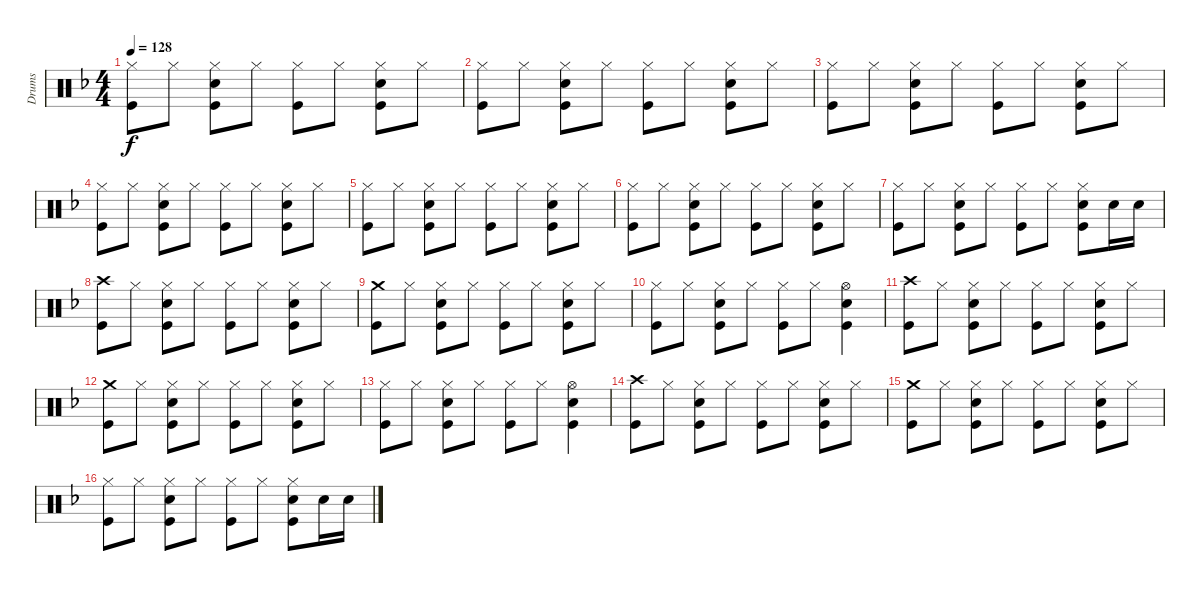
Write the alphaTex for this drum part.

\track ("Drums" "Drums") {instrument percussion}
\staff {score}
\articulation defaults
\ts (4 4)
\tempo 128
\clef neutral
\ks f
("Hi-Hat (closed)" "Kick (hit)").8{dy f} "Hi-Hat (closed)".8 ("Hi-Hat (closed)" "Snare (hit) 2" "Kick (hit)").8 "Hi-Hat (closed)".8 ("Hi-Hat (closed)" "Kick (hit)").8 "Hi-Hat (closed)".8 ("Hi-Hat (closed)" "Snare (hit) 2" "Kick (hit)").8 "Hi-Hat (closed)".8 |
("Hi-Hat (closed)" "Kick (hit)").8 "Hi-Hat (closed)".8 ("Hi-Hat (closed)" "Snare (hit) 2" "Kick (hit)").8 "Hi-Hat (closed)".8 ("Hi-Hat (closed)" "Kick (hit)").8 "Hi-Hat (closed)".8 ("Hi-Hat (closed)" "Snare (hit) 2" "Kick (hit)").8 "Hi-Hat (closed)".8 |
("Hi-Hat (closed)" "Kick (hit)").8 "Hi-Hat (closed)".8 ("Hi-Hat (closed)" "Snare (hit) 2" "Kick (hit)").8 "Hi-Hat (closed)".8 ("Hi-Hat (closed)" "Kick (hit)").8 "Hi-Hat (closed)".8 ("Hi-Hat (closed)" "Snare (hit) 2" "Kick (hit)").8 "Hi-Hat (closed)".8 |
("Hi-Hat (closed)" "Kick (hit)").8 "Hi-Hat (closed)".8 ("Hi-Hat (closed)" "Snare (hit) 2" "Kick (hit)").8 "Hi-Hat (closed)".8 ("Hi-Hat (closed)" "Kick (hit)").8 "Hi-Hat (closed)".8 ("Hi-Hat (closed)" "Snare (hit) 2" "Kick (hit)").8 "Hi-Hat (closed)".8 |
("Hi-Hat (closed)" "Kick (hit)").8 "Hi-Hat (closed)".8 ("Hi-Hat (closed)" "Snare (hit) 2" "Kick (hit)").8 "Hi-Hat (closed)".8 ("Hi-Hat (closed)" "Kick (hit)").8 "Hi-Hat (closed)".8 ("Hi-Hat (closed)" "Snare (hit) 2" "Kick (hit)").8 "Hi-Hat (closed)".8 |
("Hi-Hat (closed)" "Kick (hit)").8 "Hi-Hat (closed)".8 ("Hi-Hat (closed)" "Snare (hit) 2" "Kick (hit)").8 "Hi-Hat (closed)".8 ("Hi-Hat (closed)" "Kick (hit)").8 "Hi-Hat (closed)".8 ("Hi-Hat (closed)" "Snare (hit) 2" "Kick (hit)").8 "Hi-Hat (closed)".8 |
("Hi-Hat (closed)" "Kick (hit)").8 "Hi-Hat (closed)".8 ("Hi-Hat (closed)" "Snare (hit) 2" "Kick (hit)").8 "Hi-Hat (closed)".8 ("Hi-Hat (closed)" "Kick (hit)").8 "Hi-Hat (closed)".8 ("Hi-Hat (closed)" "Snare (hit) 2" "Kick (hit)").8 "Snare (hit) 2".16 "Snare (hit) 2".16 |
("Crash high (hit)" "Kick (hit)").8 "Hi-Hat (closed)".8 ("Hi-Hat (closed)" "Snare (hit) 2" "Kick (hit)").8 "Hi-Hat (closed)".8 ("Hi-Hat (closed)" "Kick (hit)").8 "Hi-Hat (closed)".8 ("Hi-Hat (closed)" "Snare (hit) 2" "Kick (hit)").8 "Hi-Hat (closed)".8 |
("Crash medium (hit)" "Kick (hit)").8 "Hi-Hat (closed)".8 ("Hi-Hat (closed)" "Snare (hit) 2" "Kick (hit)").8 "Hi-Hat (closed)".8 ("Hi-Hat (closed)" "Kick (hit)").8 "Hi-Hat (closed)".8 ("Hi-Hat (closed)" "Snare (hit) 2" "Kick (hit)").8 "Hi-Hat (closed)".8 |
("Hi-Hat (closed)" "Kick (hit)").8 "Hi-Hat (closed)".8 ("Hi-Hat (closed)" "Snare (hit) 2" "Kick (hit)").8 "Hi-Hat (closed)".8 ("Hi-Hat (closed)" "Kick (hit)").8 "Hi-Hat (closed)".8 ("Hi-Hat (open)" "Snare (hit) 2" "Kick (hit)").4 |
("Crash high (hit)" "Kick (hit)").8 "Hi-Hat (closed)".8 ("Hi-Hat (closed)" "Snare (hit) 2" "Kick (hit)").8 "Hi-Hat (closed)".8 ("Hi-Hat (closed)" "Kick (hit)").8 "Hi-Hat (closed)".8 ("Hi-Hat (closed)" "Snare (hit) 2" "Kick (hit)").8 "Hi-Hat (closed)".8 |
("Crash medium (hit)" "Kick (hit)").8 "Hi-Hat (closed)".8 ("Hi-Hat (closed)" "Snare (hit) 2" "Kick (hit)").8 "Hi-Hat (closed)".8 ("Hi-Hat (closed)" "Kick (hit)").8 "Hi-Hat (closed)".8 ("Hi-Hat (closed)" "Snare (hit) 2" "Kick (hit)").8 "Hi-Hat (closed)".8 |
("Hi-Hat (closed)" "Kick (hit)").8 "Hi-Hat (closed)".8 ("Hi-Hat (closed)" "Snare (hit) 2" "Kick (hit)").8 "Hi-Hat (closed)".8 ("Hi-Hat (closed)" "Kick (hit)").8 "Hi-Hat (closed)".8 ("Hi-Hat (open)" "Snare (hit) 2" "Kick (hit)").4 |
("Crash high (hit)" "Kick (hit)").8 "Hi-Hat (closed)".8 ("Hi-Hat (closed)" "Snare (hit) 2" "Kick (hit)").8 "Hi-Hat (closed)".8 ("Hi-Hat (closed)" "Kick (hit)").8 "Hi-Hat (closed)".8 ("Hi-Hat (closed)" "Snare (hit) 2" "Kick (hit)").8 "Hi-Hat (closed)".8 |
("Crash medium (hit)" "Kick (hit)").8 "Hi-Hat (closed)".8 ("Hi-Hat (closed)" "Snare (hit) 2" "Kick (hit)").8 "Hi-Hat (closed)".8 ("Hi-Hat (closed)" "Kick (hit)").8 "Hi-Hat (closed)".8 ("Hi-Hat (closed)" "Snare (hit) 2" "Kick (hit)").8 "Hi-Hat (closed)".8 |
("Hi-Hat (closed)" "Kick (hit)").8 "Hi-Hat (closed)".8 ("Hi-Hat (closed)" "Snare (hit) 2" "Kick (hit)").8 "Hi-Hat (closed)".8 ("Hi-Hat (closed)" "Kick (hit)").8 "Hi-Hat (closed)".8 ("Hi-Hat (closed)" "Snare (hit) 2" "Kick (hit)").8 "Snare (hit) 2".16 "Snare (hit) 2".16
